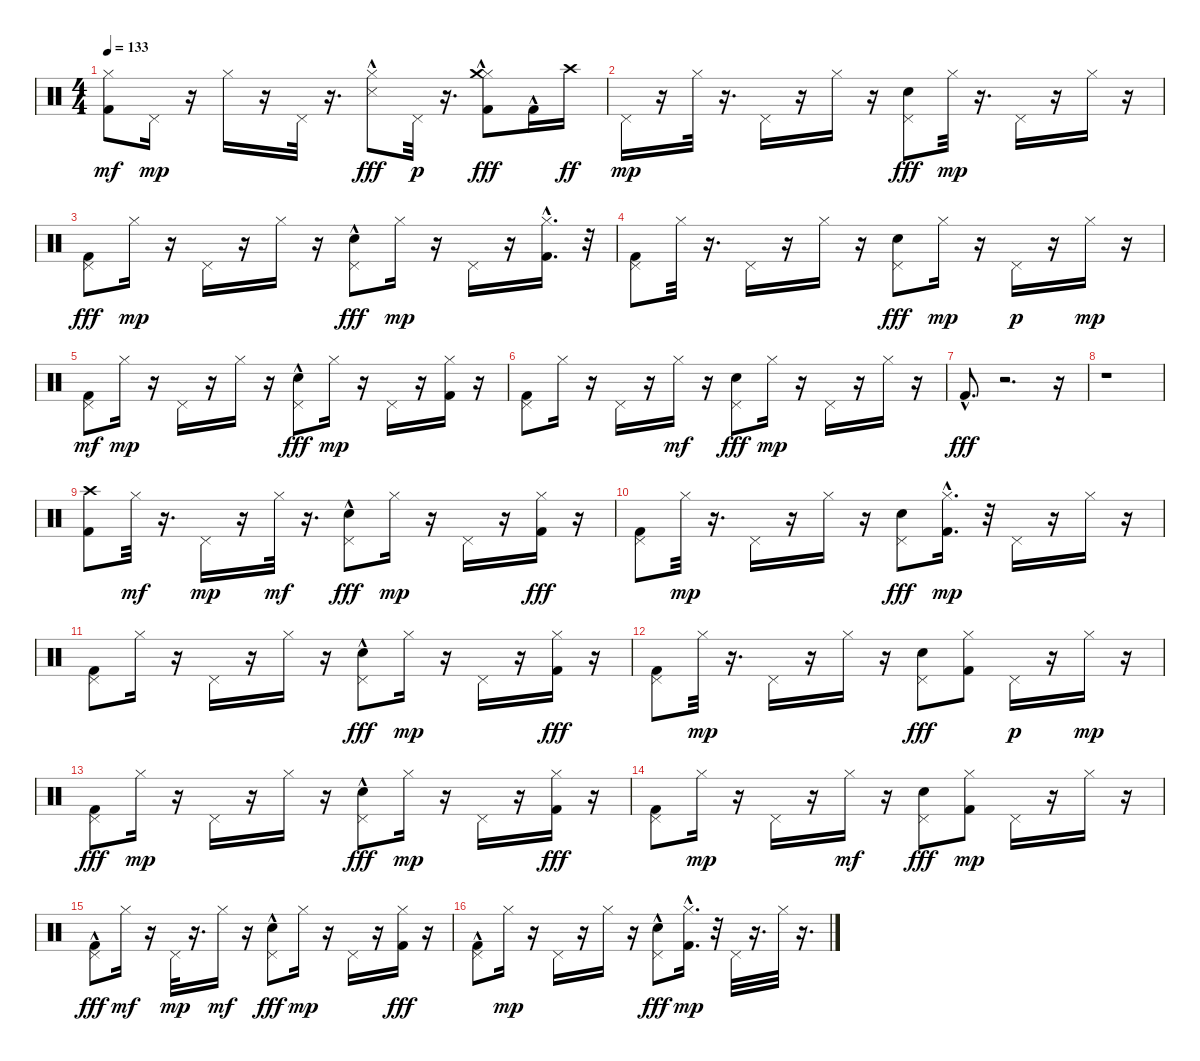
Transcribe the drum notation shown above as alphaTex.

\track "" {instrument percussion}
\staff {score}
\articulation defaults
\ts (4 4)
\tempo 133
\clef neutral
\ks c
("Kick (hit) 2" "Hi-Hat (closed)").8{dy mf} "Pedal Hi-Hat (hit)".16{dy mp} r.16 "Hi-Hat (closed)".16 r.16 "Pedal Hi-Hat (hit)".32 r.16{d} ("Hi-Hat (closed)" "Snare (side stick) 3"{hac}).8{dy fff} "Pedal Hi-Hat (hit)".32{dy p} r.16{d} ("Hi-Hat (closed)" "Crash medium (hit)" "Kick (hit) 2"{hac}).8{dy fff} "Kick (hit) 2"{hac}.16 "Crash high (hit)".16{dy ff} |
"Pedal Hi-Hat (hit)".16{dy mp} r.16 "Hi-Hat (closed)".32 r.16{d} "Pedal Hi-Hat (hit)".16 r.16 "Hi-Hat (closed)".16 r.16 ("Pedal Hi-Hat (hit)" "Snare (hit) 2").8{dy fff} "Hi-Hat (closed)".32{dy mp} r.16{d} "Pedal Hi-Hat (hit)".16 r.16 "Hi-Hat (closed)".16 r.16 |
("Pedal Hi-Hat (hit)" "Kick (hit) 2").8{dy fff} "Hi-Hat (closed)".16{dy mp} r.16 "Pedal Hi-Hat (hit)".16 r.16 "Hi-Hat (closed)".16 r.16 ("Pedal Hi-Hat (hit)" "Snare (hit) 2"{hac}).8{dy fff} "Hi-Hat (closed)".16{dy mp} r.16 "Pedal Hi-Hat (hit)".16 r.16 ("Kick (hit) 2"{hac} "Hi-Hat (closed)").16{d} r.32 |
("Kick (hit) 2" "Pedal Hi-Hat (hit)").8 "Hi-Hat (closed)".32 r.16{d} "Pedal Hi-Hat (hit)".16 r.16 "Hi-Hat (closed)".16 r.16 ("Pedal Hi-Hat (hit)" "Snare (hit) 2").8{dy fff} "Hi-Hat (closed)".16{dy mp} r.16 "Pedal Hi-Hat (hit)".16{dy p} r.16 "Hi-Hat (closed)".16{dy mp} r.16 |
("Kick (hit) 2" "Pedal Hi-Hat (hit)").8{dy mf} "Hi-Hat (closed)".16{dy mp} r.16 "Pedal Hi-Hat (hit)".16 r.16 "Hi-Hat (closed)".16 r.16 ("Pedal Hi-Hat (hit)" "Snare (hit) 2"{hac}).8{dy fff} "Hi-Hat (closed)".16{dy mp} r.16 "Pedal Hi-Hat (hit)".16 r.16 ("Kick (hit) 2" "Hi-Hat (closed)").16 r.16 |
("Kick (hit) 2" "Pedal Hi-Hat (hit)").8 "Hi-Hat (closed)".16 r.16 "Pedal Hi-Hat (hit)".16 r.16 "Hi-Hat (closed)".16{dy mf} r.16 ("Pedal Hi-Hat (hit)" "Snare (hit) 2").8{dy fff} "Hi-Hat (closed)".16{dy mp} r.16 "Pedal Hi-Hat (hit)".16 r.16 "Hi-Hat (closed)".16 r.16 |
"Kick (hit) 2"{hac}.8{d dy fff} r.2{d} r.16 |
r.1 |
("Crash high (hit)" "Kick (hit) 2").8 "Hi-Hat (closed)".32{dy mf} r.16{d} "Pedal Hi-Hat (hit)".16{dy mp} r.16 "Hi-Hat (closed)".32{dy mf} r.16{d} ("Pedal Hi-Hat (hit)" "Snare (hit) 2"{hac}).8{dy fff} "Hi-Hat (closed)".16{dy mp} r.16 "Pedal Hi-Hat (hit)".16 r.16 ("Hi-Hat (closed)" "Kick (hit) 2").16{dy fff} r.16 |
("Pedal Hi-Hat (hit)" "Kick (hit) 2").8 "Hi-Hat (closed)".32{dy mp} r.16{d} "Pedal Hi-Hat (hit)".16 r.16 "Hi-Hat (closed)".16 r.16 ("Pedal Hi-Hat (hit)" "Snare (hit) 2").8{dy fff} ("Kick (hit) 2"{hac} "Hi-Hat (closed)").16{d dy mp} r.32 "Pedal Hi-Hat (hit)".16 r.16 "Hi-Hat (closed)".16 r.16 |
("Kick (hit) 2" "Pedal Hi-Hat (hit)").8 "Hi-Hat (closed)".16 r.16 "Pedal Hi-Hat (hit)".16 r.16 "Hi-Hat (closed)".16 r.16 ("Pedal Hi-Hat (hit)" "Snare (hit) 2"{hac}).8{dy fff} "Hi-Hat (closed)".16{dy mp} r.16 "Pedal Hi-Hat (hit)".16 r.16 ("Hi-Hat (closed)" "Kick (hit) 2").16{dy fff} r.16 |
("Pedal Hi-Hat (hit)" "Kick (hit) 2").8 "Hi-Hat (closed)".32{dy mp} r.16{d} "Pedal Hi-Hat (hit)".16 r.16 "Hi-Hat (closed)".16 r.16 ("Pedal Hi-Hat (hit)" "Snare (hit) 2").8{dy fff} ("Hi-Hat (closed)" "Kick (hit) 2").8 "Pedal Hi-Hat (hit)".16{dy p} r.16 "Hi-Hat (closed)".16{dy mp} r.16 |
("Pedal Hi-Hat (hit)" "Kick (hit) 2").8{dy fff} "Hi-Hat (closed)".16{dy mp} r.16 "Pedal Hi-Hat (hit)".16 r.16 "Hi-Hat (closed)".16 r.16 ("Pedal Hi-Hat (hit)" "Snare (hit) 2"{hac}).8{dy fff} "Hi-Hat (closed)".16{dy mp} r.16 "Pedal Hi-Hat (hit)".16 r.16 ("Hi-Hat (closed)" "Kick (hit) 2").16{dy fff} r.16 |
("Pedal Hi-Hat (hit)" "Kick (hit) 2").8 "Hi-Hat (closed)".16{dy mp} r.16 "Pedal Hi-Hat (hit)".16 r.16 "Hi-Hat (closed)".16{dy mf} r.16 ("Pedal Hi-Hat (hit)" "Snare (hit) 2").8{dy fff} ("Kick (hit) 2" "Hi-Hat (closed)").8{dy mp} "Pedal Hi-Hat (hit)".16 r.16 "Hi-Hat (closed)".16 r.16 |
("Pedal Hi-Hat (hit)" "Kick (hit) 2"{hac}).8{dy fff} "Hi-Hat (closed)".16{dy mf} r.16 "Pedal Hi-Hat (hit)".32{dy mp} r.16{d} "Hi-Hat (closed)".16{dy mf} r.16 ("Pedal Hi-Hat (hit)" "Snare (hit) 2"{hac}).8{dy fff} "Hi-Hat (closed)".16{dy mp} r.16 "Pedal Hi-Hat (hit)".16 r.16 ("Hi-Hat (closed)" "Kick (hit) 2").16{dy fff} r.16 |
("Pedal Hi-Hat (hit)" "Kick (hit) 2"{hac}).8 "Hi-Hat (closed)".16{dy mp} r.16 "Pedal Hi-Hat (hit)".16 r.16 "Hi-Hat (closed)".16 r.16 ("Pedal Hi-Hat (hit)" "Snare (hit) 2"{hac}).8{dy fff} ("Kick (hit) 2"{hac} "Hi-Hat (closed)").16{d dy mp} r.32 "Pedal Hi-Hat (hit)".32 r.16{d} "Hi-Hat (closed)".32 r.16{d}
